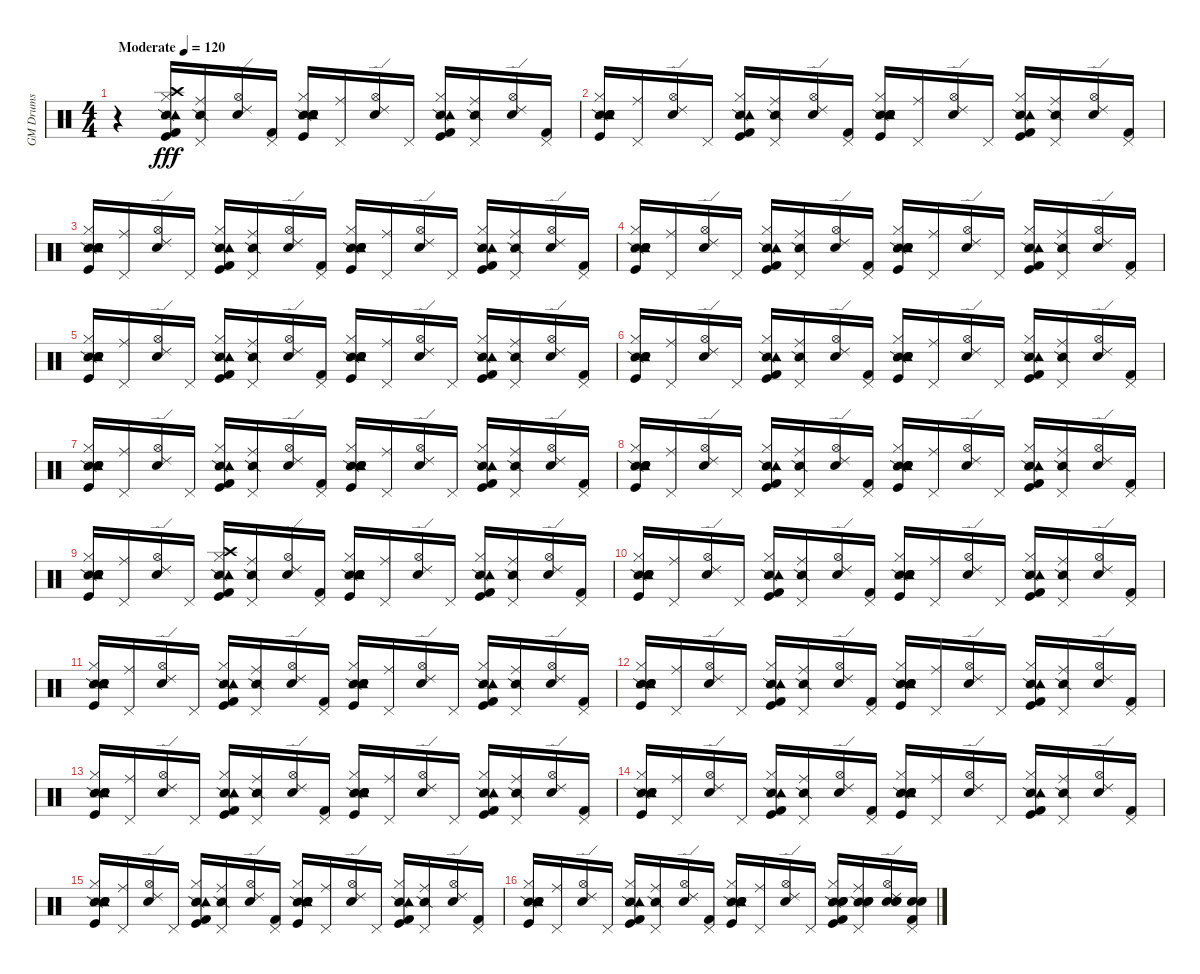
\track ("GM Drums" "GM Drums") {instrument percussion}
\staff {score}
\articulation defaults
\ts (4 4)
\tempo (120 "Moderate")
\clef neutral
\ks c
r.4{dy fff} ("Snare (side stick) 2" "Kick (hit)" "Kick (hit) 2" "Hi-Hat (closed)" "Crash high (hit)" "Tambourine (hit)").16 ("Snare (side stick) 2" "Pedal Hi-Hat (hit)" "Ride (middle)").16 ("Metronome (bell)" "Hi-Hat (open)" "Ride (edge) 2").16 ("Kick (hit) 2" "Pedal Hi-Hat (hit)").16 ("Snare (side stick) 2" "Kick (hit)" "Snare (hit) 2" "Hand Clap (hit)" "Hi-Hat (closed)" "Tambourine (hit)").16 ("Pedal Hi-Hat (hit)" "Ride (middle)").16 ("Metronome (bell)" "Hi-Hat (open)" "Ride (edge) 2").16 "Pedal Hi-Hat (hit)".16 ("Snare (side stick) 2" "Kick (hit)" "Kick (hit) 2" "Hi-Hat (closed)" "Tambourine (hit)").16 ("Snare (side stick) 2" "Pedal Hi-Hat (hit)" "Ride (middle)").16 ("Metronome (bell)" "Hi-Hat (open)" "Ride (edge) 2").16 ("Kick (hit) 2" "Pedal Hi-Hat (hit)").16 |
("Snare (side stick) 2" "Kick (hit)" "Snare (hit) 2" "Hand Clap (hit)" "Hi-Hat (closed)" "Tambourine (hit)").16 ("Pedal Hi-Hat (hit)" "Ride (middle)").16 ("Metronome (bell)" "Hi-Hat (open)" "Ride (edge) 2").16 "Pedal Hi-Hat (hit)".16 ("Snare (side stick) 2" "Kick (hit)" "Kick (hit) 2" "Hi-Hat (closed)" "Tambourine (hit)").16 ("Snare (side stick) 2" "Pedal Hi-Hat (hit)" "Ride (middle)").16 ("Metronome (bell)" "Hi-Hat (open)" "Ride (edge) 2").16 ("Kick (hit) 2" "Pedal Hi-Hat (hit)").16 ("Snare (side stick) 2" "Kick (hit)" "Snare (hit) 2" "Hand Clap (hit)" "Hi-Hat (closed)" "Tambourine (hit)").16 ("Pedal Hi-Hat (hit)" "Ride (middle)").16 ("Metronome (bell)" "Hi-Hat (open)" "Ride (edge) 2").16 "Pedal Hi-Hat (hit)".16 ("Snare (side stick) 2" "Kick (hit)" "Kick (hit) 2" "Hi-Hat (closed)" "Tambourine (hit)").16 ("Snare (side stick) 2" "Pedal Hi-Hat (hit)" "Ride (middle)").16 ("Metronome (bell)" "Hi-Hat (open)" "Ride (edge) 2").16 ("Kick (hit) 2" "Pedal Hi-Hat (hit)").16 |
("Snare (side stick) 2" "Kick (hit)" "Snare (hit) 2" "Hand Clap (hit)" "Hi-Hat (closed)" "Tambourine (hit)").16 ("Pedal Hi-Hat (hit)" "Ride (middle)").16 ("Metronome (bell)" "Hi-Hat (open)" "Ride (edge) 2").16 "Pedal Hi-Hat (hit)".16 ("Snare (side stick) 2" "Kick (hit)" "Kick (hit) 2" "Hi-Hat (closed)" "Tambourine (hit)").16 ("Snare (side stick) 2" "Pedal Hi-Hat (hit)" "Ride (middle)").16 ("Metronome (bell)" "Hi-Hat (open)" "Ride (edge) 2").16 ("Kick (hit) 2" "Pedal Hi-Hat (hit)").16 ("Snare (side stick) 2" "Kick (hit)" "Snare (hit) 2" "Hand Clap (hit)" "Hi-Hat (closed)" "Tambourine (hit)").16 ("Pedal Hi-Hat (hit)" "Ride (middle)").16 ("Metronome (bell)" "Hi-Hat (open)" "Ride (edge) 2").16 "Pedal Hi-Hat (hit)".16 ("Snare (side stick) 2" "Kick (hit)" "Kick (hit) 2" "Hi-Hat (closed)" "Tambourine (hit)").16 ("Snare (side stick) 2" "Pedal Hi-Hat (hit)" "Ride (middle)").16 ("Metronome (bell)" "Hi-Hat (open)" "Ride (edge) 2").16 ("Kick (hit) 2" "Pedal Hi-Hat (hit)").16 |
("Snare (side stick) 2" "Kick (hit)" "Snare (hit) 2" "Hand Clap (hit)" "Hi-Hat (closed)" "Tambourine (hit)").16 ("Pedal Hi-Hat (hit)" "Ride (middle)").16 ("Metronome (bell)" "Hi-Hat (open)" "Ride (edge) 2").16 "Pedal Hi-Hat (hit)".16 ("Snare (side stick) 2" "Kick (hit)" "Kick (hit) 2" "Hi-Hat (closed)" "Tambourine (hit)").16 ("Snare (side stick) 2" "Pedal Hi-Hat (hit)" "Ride (middle)").16 ("Metronome (bell)" "Hi-Hat (open)" "Ride (edge) 2").16 ("Kick (hit) 2" "Pedal Hi-Hat (hit)").16 ("Snare (side stick) 2" "Kick (hit)" "Snare (hit) 2" "Hand Clap (hit)" "Hi-Hat (closed)" "Tambourine (hit)").16 ("Pedal Hi-Hat (hit)" "Ride (middle)").16 ("Metronome (bell)" "Hi-Hat (open)" "Ride (edge) 2").16 "Pedal Hi-Hat (hit)".16 ("Snare (side stick) 2" "Kick (hit)" "Kick (hit) 2" "Hi-Hat (closed)" "Tambourine (hit)").16 ("Snare (side stick) 2" "Pedal Hi-Hat (hit)" "Ride (middle)").16 ("Metronome (bell)" "Hi-Hat (open)" "Ride (edge) 2").16 ("Kick (hit) 2" "Pedal Hi-Hat (hit)").16 |
("Snare (side stick) 2" "Kick (hit)" "Snare (hit) 2" "Hand Clap (hit)" "Hi-Hat (closed)" "Tambourine (hit)").16 ("Pedal Hi-Hat (hit)" "Ride (middle)").16 ("Metronome (bell)" "Hi-Hat (open)" "Ride (edge) 2").16 "Pedal Hi-Hat (hit)".16 ("Snare (side stick) 2" "Kick (hit)" "Kick (hit) 2" "Hi-Hat (closed)" "Tambourine (hit)").16 ("Snare (side stick) 2" "Pedal Hi-Hat (hit)" "Ride (middle)").16 ("Metronome (bell)" "Hi-Hat (open)" "Ride (edge) 2").16 ("Kick (hit) 2" "Pedal Hi-Hat (hit)").16 ("Snare (side stick) 2" "Kick (hit)" "Snare (hit) 2" "Hand Clap (hit)" "Hi-Hat (closed)" "Tambourine (hit)").16 ("Pedal Hi-Hat (hit)" "Ride (middle)").16 ("Metronome (bell)" "Hi-Hat (open)" "Ride (edge) 2").16 "Pedal Hi-Hat (hit)".16 ("Snare (side stick) 2" "Kick (hit)" "Kick (hit) 2" "Hi-Hat (closed)" "Tambourine (hit)").16 ("Snare (side stick) 2" "Pedal Hi-Hat (hit)" "Ride (middle)").16 ("Metronome (bell)" "Hi-Hat (open)" "Ride (edge) 2").16 ("Kick (hit) 2" "Pedal Hi-Hat (hit)").16 |
("Snare (side stick) 2" "Kick (hit)" "Snare (hit) 2" "Hand Clap (hit)" "Hi-Hat (closed)" "Tambourine (hit)").16 ("Pedal Hi-Hat (hit)" "Ride (middle)").16 ("Metronome (bell)" "Hi-Hat (open)" "Ride (edge) 2").16 "Pedal Hi-Hat (hit)".16 ("Snare (side stick) 2" "Kick (hit)" "Kick (hit) 2" "Hi-Hat (closed)" "Tambourine (hit)").16 ("Snare (side stick) 2" "Pedal Hi-Hat (hit)" "Ride (middle)").16 ("Metronome (bell)" "Hi-Hat (open)" "Ride (edge) 2").16 ("Kick (hit) 2" "Pedal Hi-Hat (hit)").16 ("Snare (side stick) 2" "Kick (hit)" "Snare (hit) 2" "Hand Clap (hit)" "Hi-Hat (closed)" "Tambourine (hit)").16 ("Pedal Hi-Hat (hit)" "Ride (middle)").16 ("Metronome (bell)" "Hi-Hat (open)" "Ride (edge) 2").16 "Pedal Hi-Hat (hit)".16 ("Snare (side stick) 2" "Kick (hit)" "Kick (hit) 2" "Hi-Hat (closed)" "Tambourine (hit)").16 ("Snare (side stick) 2" "Pedal Hi-Hat (hit)" "Ride (middle)").16 ("Metronome (bell)" "Hi-Hat (open)" "Ride (edge) 2").16 ("Kick (hit) 2" "Pedal Hi-Hat (hit)").16 |
("Snare (side stick) 2" "Kick (hit)" "Snare (hit) 2" "Hand Clap (hit)" "Hi-Hat (closed)" "Tambourine (hit)").16 ("Pedal Hi-Hat (hit)" "Ride (middle)").16 ("Metronome (bell)" "Hi-Hat (open)" "Ride (edge) 2").16 "Pedal Hi-Hat (hit)".16 ("Snare (side stick) 2" "Kick (hit)" "Kick (hit) 2" "Hi-Hat (closed)" "Tambourine (hit)").16 ("Snare (side stick) 2" "Pedal Hi-Hat (hit)" "Ride (middle)").16 ("Metronome (bell)" "Hi-Hat (open)" "Ride (edge) 2").16 ("Kick (hit) 2" "Pedal Hi-Hat (hit)").16 ("Snare (side stick) 2" "Kick (hit)" "Snare (hit) 2" "Hand Clap (hit)" "Hi-Hat (closed)" "Tambourine (hit)").16 ("Pedal Hi-Hat (hit)" "Ride (middle)").16 ("Metronome (bell)" "Hi-Hat (open)" "Ride (edge) 2").16 "Pedal Hi-Hat (hit)".16 ("Snare (side stick) 2" "Kick (hit)" "Kick (hit) 2" "Hi-Hat (closed)" "Tambourine (hit)").16 ("Snare (side stick) 2" "Pedal Hi-Hat (hit)" "Ride (middle)").16 ("Metronome (bell)" "Hi-Hat (open)" "Ride (edge) 2").16 ("Kick (hit) 2" "Pedal Hi-Hat (hit)").16 |
("Snare (side stick) 2" "Kick (hit)" "Snare (hit) 2" "Hand Clap (hit)" "Hi-Hat (closed)" "Tambourine (hit)").16 ("Pedal Hi-Hat (hit)" "Ride (middle)").16 ("Metronome (bell)" "Hi-Hat (open)" "Ride (edge) 2").16 "Pedal Hi-Hat (hit)".16 ("Snare (side stick) 2" "Kick (hit)" "Kick (hit) 2" "Hi-Hat (closed)" "Tambourine (hit)").16 ("Snare (side stick) 2" "Pedal Hi-Hat (hit)" "Ride (middle)").16 ("Metronome (bell)" "Hi-Hat (open)" "Ride (edge) 2").16 ("Kick (hit) 2" "Pedal Hi-Hat (hit)").16 ("Snare (side stick) 2" "Kick (hit)" "Snare (hit) 2" "Hand Clap (hit)" "Hi-Hat (closed)" "Tambourine (hit)").16 ("Pedal Hi-Hat (hit)" "Ride (middle)").16 ("Metronome (bell)" "Hi-Hat (open)" "Ride (edge) 2").16 "Pedal Hi-Hat (hit)".16 ("Snare (side stick) 2" "Kick (hit)" "Kick (hit) 2" "Hi-Hat (closed)" "Tambourine (hit)").16 ("Snare (side stick) 2" "Pedal Hi-Hat (hit)" "Ride (middle)").16 ("Metronome (bell)" "Hi-Hat (open)" "Ride (edge) 2").16 ("Kick (hit) 2" "Pedal Hi-Hat (hit)").16 |
("Snare (side stick) 2" "Kick (hit)" "Snare (hit) 2" "Hand Clap (hit)" "Hi-Hat (closed)" "Tambourine (hit)").16 ("Pedal Hi-Hat (hit)" "Ride (middle)").16 ("Metronome (bell)" "Hi-Hat (open)" "Ride (edge) 2").16 "Pedal Hi-Hat (hit)".16 ("Snare (side stick) 2" "Kick (hit)" "Kick (hit) 2" "Hi-Hat (closed)" "Crash high (hit)" "Tambourine (hit)").16 ("Snare (side stick) 2" "Pedal Hi-Hat (hit)" "Ride (middle)").16 ("Metronome (bell)" "Hi-Hat (open)" "Ride (edge) 2").16 ("Kick (hit) 2" "Pedal Hi-Hat (hit)").16 ("Snare (side stick) 2" "Kick (hit)" "Snare (hit) 2" "Hand Clap (hit)" "Hi-Hat (closed)" "Tambourine (hit)").16 ("Pedal Hi-Hat (hit)" "Ride (middle)").16 ("Metronome (bell)" "Hi-Hat (open)" "Ride (edge) 2").16 "Pedal Hi-Hat (hit)".16 ("Snare (side stick) 2" "Kick (hit)" "Kick (hit) 2" "Hi-Hat (closed)" "Tambourine (hit)").16 ("Snare (side stick) 2" "Pedal Hi-Hat (hit)" "Ride (middle)").16 ("Metronome (bell)" "Hi-Hat (open)" "Ride (edge) 2").16 ("Kick (hit) 2" "Pedal Hi-Hat (hit)").16 |
("Snare (side stick) 2" "Kick (hit)" "Snare (hit) 2" "Hand Clap (hit)" "Hi-Hat (closed)" "Tambourine (hit)").16 ("Pedal Hi-Hat (hit)" "Ride (middle)").16 ("Metronome (bell)" "Hi-Hat (open)" "Ride (edge) 2").16 "Pedal Hi-Hat (hit)".16 ("Snare (side stick) 2" "Kick (hit)" "Kick (hit) 2" "Hi-Hat (closed)" "Tambourine (hit)").16 ("Snare (side stick) 2" "Pedal Hi-Hat (hit)" "Ride (middle)").16 ("Metronome (bell)" "Hi-Hat (open)" "Ride (edge) 2").16 ("Kick (hit) 2" "Pedal Hi-Hat (hit)").16 ("Snare (side stick) 2" "Kick (hit)" "Snare (hit) 2" "Hand Clap (hit)" "Hi-Hat (closed)" "Tambourine (hit)").16 ("Pedal Hi-Hat (hit)" "Ride (middle)").16 ("Metronome (bell)" "Hi-Hat (open)" "Ride (edge) 2").16 "Pedal Hi-Hat (hit)".16 ("Snare (side stick) 2" "Kick (hit)" "Kick (hit) 2" "Hi-Hat (closed)" "Tambourine (hit)").16 ("Snare (side stick) 2" "Pedal Hi-Hat (hit)" "Ride (middle)").16 ("Metronome (bell)" "Hi-Hat (open)" "Ride (edge) 2").16 ("Kick (hit) 2" "Pedal Hi-Hat (hit)").16 |
("Snare (side stick) 2" "Kick (hit)" "Snare (hit) 2" "Hand Clap (hit)" "Hi-Hat (closed)" "Tambourine (hit)").16 ("Pedal Hi-Hat (hit)" "Ride (middle)").16 ("Metronome (bell)" "Hi-Hat (open)" "Ride (edge) 2").16 "Pedal Hi-Hat (hit)".16 ("Snare (side stick) 2" "Kick (hit)" "Kick (hit) 2" "Hi-Hat (closed)" "Tambourine (hit)").16 ("Snare (side stick) 2" "Pedal Hi-Hat (hit)" "Ride (middle)").16 ("Metronome (bell)" "Hi-Hat (open)" "Ride (edge) 2").16 ("Kick (hit) 2" "Pedal Hi-Hat (hit)").16 ("Snare (side stick) 2" "Kick (hit)" "Snare (hit) 2" "Hand Clap (hit)" "Hi-Hat (closed)" "Tambourine (hit)").16 ("Pedal Hi-Hat (hit)" "Ride (middle)").16 ("Metronome (bell)" "Hi-Hat (open)" "Ride (edge) 2").16 "Pedal Hi-Hat (hit)".16 ("Snare (side stick) 2" "Kick (hit)" "Kick (hit) 2" "Hi-Hat (closed)" "Tambourine (hit)").16 ("Snare (side stick) 2" "Pedal Hi-Hat (hit)" "Ride (middle)").16 ("Metronome (bell)" "Hi-Hat (open)" "Ride (edge) 2").16 ("Kick (hit) 2" "Pedal Hi-Hat (hit)").16 |
("Snare (side stick) 2" "Kick (hit)" "Snare (hit) 2" "Hand Clap (hit)" "Hi-Hat (closed)" "Tambourine (hit)").16 ("Pedal Hi-Hat (hit)" "Ride (middle)").16 ("Metronome (bell)" "Hi-Hat (open)" "Ride (edge) 2").16 "Pedal Hi-Hat (hit)".16 ("Snare (side stick) 2" "Kick (hit)" "Kick (hit) 2" "Hi-Hat (closed)" "Tambourine (hit)").16 ("Snare (side stick) 2" "Pedal Hi-Hat (hit)" "Ride (middle)").16 ("Metronome (bell)" "Hi-Hat (open)" "Ride (edge) 2").16 ("Kick (hit) 2" "Pedal Hi-Hat (hit)").16 ("Snare (side stick) 2" "Kick (hit)" "Snare (hit) 2" "Hand Clap (hit)" "Hi-Hat (closed)" "Tambourine (hit)").16 ("Pedal Hi-Hat (hit)" "Ride (middle)").16 ("Metronome (bell)" "Hi-Hat (open)" "Ride (edge) 2").16 "Pedal Hi-Hat (hit)".16 ("Snare (side stick) 2" "Kick (hit)" "Kick (hit) 2" "Hi-Hat (closed)" "Tambourine (hit)").16 ("Snare (side stick) 2" "Pedal Hi-Hat (hit)" "Ride (middle)").16 ("Metronome (bell)" "Hi-Hat (open)" "Ride (edge) 2").16 ("Kick (hit) 2" "Pedal Hi-Hat (hit)").16 |
("Snare (side stick) 2" "Kick (hit)" "Snare (hit) 2" "Hand Clap (hit)" "Hi-Hat (closed)" "Tambourine (hit)").16 ("Pedal Hi-Hat (hit)" "Ride (middle)").16 ("Metronome (bell)" "Hi-Hat (open)" "Ride (edge) 2").16 "Pedal Hi-Hat (hit)".16 ("Snare (side stick) 2" "Kick (hit)" "Kick (hit) 2" "Hi-Hat (closed)" "Tambourine (hit)").16 ("Snare (side stick) 2" "Pedal Hi-Hat (hit)" "Ride (middle)").16 ("Metronome (bell)" "Hi-Hat (open)" "Ride (edge) 2").16 ("Kick (hit) 2" "Pedal Hi-Hat (hit)").16 ("Snare (side stick) 2" "Kick (hit)" "Snare (hit) 2" "Hand Clap (hit)" "Hi-Hat (closed)" "Tambourine (hit)").16 ("Pedal Hi-Hat (hit)" "Ride (middle)").16 ("Metronome (bell)" "Hi-Hat (open)" "Ride (edge) 2").16 "Pedal Hi-Hat (hit)".16 ("Snare (side stick) 2" "Kick (hit)" "Kick (hit) 2" "Hi-Hat (closed)" "Tambourine (hit)").16 ("Snare (side stick) 2" "Pedal Hi-Hat (hit)" "Ride (middle)").16 ("Metronome (bell)" "Hi-Hat (open)" "Ride (edge) 2").16 ("Kick (hit) 2" "Pedal Hi-Hat (hit)").16 |
("Snare (side stick) 2" "Kick (hit)" "Snare (hit) 2" "Hand Clap (hit)" "Hi-Hat (closed)" "Tambourine (hit)").16 ("Pedal Hi-Hat (hit)" "Ride (middle)").16 ("Metronome (bell)" "Hi-Hat (open)" "Ride (edge) 2").16 "Pedal Hi-Hat (hit)".16 ("Snare (side stick) 2" "Kick (hit)" "Kick (hit) 2" "Hi-Hat (closed)" "Tambourine (hit)").16 ("Snare (side stick) 2" "Pedal Hi-Hat (hit)" "Ride (middle)").16 ("Metronome (bell)" "Hi-Hat (open)" "Ride (edge) 2").16 ("Kick (hit) 2" "Pedal Hi-Hat (hit)").16 ("Snare (side stick) 2" "Kick (hit)" "Snare (hit) 2" "Hand Clap (hit)" "Hi-Hat (closed)" "Tambourine (hit)").16 ("Pedal Hi-Hat (hit)" "Ride (middle)").16 ("Metronome (bell)" "Hi-Hat (open)" "Ride (edge) 2").16 "Pedal Hi-Hat (hit)".16 ("Snare (side stick) 2" "Kick (hit)" "Kick (hit) 2" "Hi-Hat (closed)" "Tambourine (hit)").16 ("Snare (side stick) 2" "Pedal Hi-Hat (hit)" "Ride (middle)").16 ("Metronome (bell)" "Hi-Hat (open)" "Ride (edge) 2").16 ("Kick (hit) 2" "Pedal Hi-Hat (hit)").16 |
("Snare (side stick) 2" "Kick (hit)" "Snare (hit) 2" "Hand Clap (hit)" "Hi-Hat (closed)" "Tambourine (hit)").16 ("Pedal Hi-Hat (hit)" "Ride (middle)").16 ("Metronome (bell)" "Hi-Hat (open)" "Ride (edge) 2").16 "Pedal Hi-Hat (hit)".16 ("Snare (side stick) 2" "Kick (hit)" "Kick (hit) 2" "Hi-Hat (closed)" "Tambourine (hit)").16 ("Snare (side stick) 2" "Pedal Hi-Hat (hit)" "Ride (middle)").16 ("Metronome (bell)" "Hi-Hat (open)" "Ride (edge) 2").16 ("Kick (hit) 2" "Pedal Hi-Hat (hit)").16 ("Snare (side stick) 2" "Kick (hit)" "Snare (hit) 2" "Hand Clap (hit)" "Hi-Hat (closed)" "Tambourine (hit)").16 ("Pedal Hi-Hat (hit)" "Ride (middle)").16 ("Metronome (bell)" "Hi-Hat (open)" "Ride (edge) 2").16 "Pedal Hi-Hat (hit)".16 ("Snare (side stick) 2" "Kick (hit)" "Kick (hit) 2" "Hi-Hat (closed)" "Tambourine (hit)").16 ("Snare (side stick) 2" "Pedal Hi-Hat (hit)" "Ride (middle)").16 ("Metronome (bell)" "Hi-Hat (open)" "Ride (edge) 2").16 ("Kick (hit) 2" "Pedal Hi-Hat (hit)").16 |
("Snare (side stick) 2" "Kick (hit)" "Snare (hit) 2" "Hand Clap (hit)" "Hi-Hat (closed)" "Tambourine (hit)").16 ("Pedal Hi-Hat (hit)" "Ride (middle)").16 ("Metronome (bell)" "Hi-Hat (open)" "Ride (edge) 2").16 "Pedal Hi-Hat (hit)".16 ("Snare (side stick) 2" "Kick (hit)" "Kick (hit) 2" "Hi-Hat (closed)" "Tambourine (hit)").16 ("Snare (side stick) 2" "Pedal Hi-Hat (hit)" "Ride (middle)").16 ("Metronome (bell)" "Hi-Hat (open)" "Ride (edge) 2").16 ("Kick (hit) 2" "Pedal Hi-Hat (hit)").16 ("Snare (side stick) 2" "Kick (hit)" "Snare (hit) 2" "Hand Clap (hit)" "Hi-Hat (closed)" "Tambourine (hit)").16 ("Pedal Hi-Hat (hit)" "Ride (middle)").16 ("Metronome (bell)" "Hi-Hat (open)" "Ride (edge) 2").16 "Pedal Hi-Hat (hit)".16 ("Snare (side stick) 2" "Kick (hit)" "Kick (hit) 2" "Snare (hit) 2" "Electric Snare (hit)" "Hi-Hat (closed)").16 ("Snare (side stick) 2" "Snare (hit) 2" "Electric Snare (hit)" "Pedal Hi-Hat (hit)" "Ride (middle)").16 ("Metronome (bell)" "Snare (hit) 2" "Electric Snare (hit)" "Hi-Hat (open)" "Ride (edge) 2").16 ("Kick (hit) 2" "Snare (hit) 2" "Electric Snare (hit)" "Pedal Hi-Hat (hit)").16
